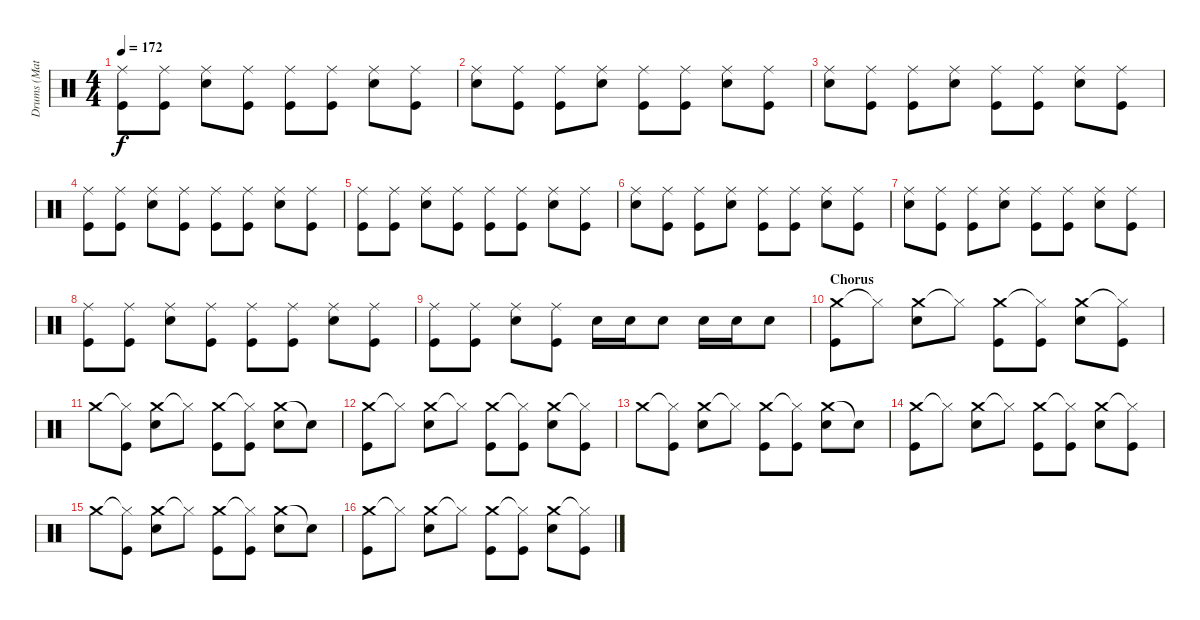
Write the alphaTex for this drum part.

\track ("Drums (Matt)" "Drums (Mat") {instrument percussion}
\staff {score}
\articulation defaults
\ts (4 4)
\tempo 172
\clef neutral
\ks c
("Ride (middle)" "Kick (hit)").8{dy f} ("Ride (middle)" "Kick (hit)").8 ("Ride (middle)" "Electric Snare (hit)").8 ("Ride (middle)" "Kick (hit)").8 ("Ride (middle)" "Kick (hit)").8 ("Ride (middle)" "Kick (hit)").8 ("Ride (middle)" "Electric Snare (hit)").8 ("Ride (middle)" "Kick (hit)").8 |
("Ride (middle)" "Electric Snare (hit)").8 ("Ride (middle)" "Kick (hit)").8 ("Ride (middle)" "Kick (hit)").8 ("Ride (middle)" "Electric Snare (hit)").8 ("Ride (middle)" "Kick (hit)").8 ("Ride (middle)" "Kick (hit)").8 ("Ride (middle)" "Electric Snare (hit)").8 ("Ride (middle)" "Kick (hit)").8 |
("Ride (middle)" "Electric Snare (hit)").8 ("Ride (middle)" "Kick (hit)").8 ("Ride (middle)" "Kick (hit)").8 ("Ride (middle)" "Electric Snare (hit)").8 ("Ride (middle)" "Kick (hit)").8 ("Ride (middle)" "Kick (hit)").8 ("Ride (middle)" "Electric Snare (hit)").8 ("Ride (middle)" "Kick (hit)").8 |
("Ride (middle)" "Kick (hit)").8 ("Ride (middle)" "Kick (hit)").8 ("Ride (middle)" "Electric Snare (hit)").8 ("Ride (middle)" "Kick (hit)").8 ("Ride (middle)" "Kick (hit)").8 ("Ride (middle)" "Kick (hit)").8 ("Ride (middle)" "Electric Snare (hit)").8 ("Ride (middle)" "Kick (hit)").8 |
("Ride (middle)" "Kick (hit)").8 ("Ride (middle)" "Kick (hit)").8 ("Ride (middle)" "Electric Snare (hit)").8 ("Ride (middle)" "Kick (hit)").8 ("Ride (middle)" "Kick (hit)").8 ("Ride (middle)" "Kick (hit)").8 ("Ride (middle)" "Electric Snare (hit)").8 ("Ride (middle)" "Kick (hit)").8 |
("Ride (middle)" "Electric Snare (hit)").8 ("Ride (middle)" "Kick (hit)").8 ("Ride (middle)" "Kick (hit)").8 ("Ride (middle)" "Electric Snare (hit)").8 ("Ride (middle)" "Kick (hit)").8 ("Ride (middle)" "Kick (hit)").8 ("Ride (middle)" "Electric Snare (hit)").8 ("Ride (middle)" "Kick (hit)").8 |
("Ride (middle)" "Electric Snare (hit)").8 ("Ride (middle)" "Kick (hit)").8 ("Ride (middle)" "Kick (hit)").8 ("Ride (middle)" "Electric Snare (hit)").8 ("Ride (middle)" "Kick (hit)").8 ("Ride (middle)" "Kick (hit)").8 ("Ride (middle)" "Electric Snare (hit)").8 ("Ride (middle)" "Kick (hit)").8 |
("Ride (middle)" "Kick (hit)").8 ("Ride (middle)" "Kick (hit)").8 ("Ride (middle)" "Electric Snare (hit)").8 ("Ride (middle)" "Kick (hit)").8 ("Ride (middle)" "Kick (hit)").8 ("Ride (middle)" "Kick (hit)").8 ("Ride (middle)" "Electric Snare (hit)").8 ("Ride (middle)" "Kick (hit)").8 |
("Ride (middle)" "Kick (hit)").8 ("Ride (middle)" "Kick (hit)").8 ("Ride (middle)" "Electric Snare (hit)").8 ("Ride (middle)" "Kick (hit)").8 "Electric Snare (hit)".16 "Electric Snare (hit)".16 "Electric Snare (hit)".8 "Electric Snare (hit)".16 "Electric Snare (hit)".16 "Electric Snare (hit)".8 |
\section ("" "Chorus")
("Crash medium (hit)" "Kick (hit)").8 "Hi-Hat (closed)"{t}.8 ("Crash medium (hit)" "Electric Snare (hit)").8 "Hi-Hat (closed)"{t}.8 ("Crash medium (hit)" "Kick (hit)").8 ("Hi-Hat (closed)"{t} "Kick (hit)").8 ("Crash medium (hit)" "Electric Snare (hit)").8 ("Hi-Hat (closed)"{t} "Kick (hit)").8 |
"Crash medium (hit)".8 ("Hi-Hat (closed)"{t} "Kick (hit)").8 ("Crash medium (hit)" "Electric Snare (hit)").8 "Hi-Hat (closed)"{t}.8 ("Crash medium (hit)" "Kick (hit)").8 ("Hi-Hat (closed)"{t} "Kick (hit)").8 ("Crash medium (hit)" "Electric Snare (hit)").8 "Snare (hit)"{t}.8 |
("Crash medium (hit)" "Kick (hit)").8 "Hi-Hat (closed)"{t}.8 ("Crash medium (hit)" "Electric Snare (hit)").8 "Hi-Hat (closed)"{t}.8 ("Crash medium (hit)" "Kick (hit)").8 ("Hi-Hat (closed)"{t} "Kick (hit)").8 ("Crash medium (hit)" "Electric Snare (hit)").8 ("Hi-Hat (closed)"{t} "Kick (hit)").8 |
"Crash medium (hit)".8 ("Hi-Hat (closed)"{t} "Kick (hit)").8 ("Crash medium (hit)" "Electric Snare (hit)").8 "Hi-Hat (closed)"{t}.8 ("Crash medium (hit)" "Kick (hit)").8 ("Hi-Hat (closed)"{t} "Kick (hit)").8 ("Crash medium (hit)" "Electric Snare (hit)").8 "Snare (hit)"{t}.8 |
("Crash medium (hit)" "Kick (hit)").8 "Hi-Hat (closed)"{t}.8 ("Crash medium (hit)" "Electric Snare (hit)").8 "Hi-Hat (closed)"{t}.8 ("Crash medium (hit)" "Kick (hit)").8 ("Hi-Hat (closed)"{t} "Kick (hit)").8 ("Crash medium (hit)" "Electric Snare (hit)").8 ("Hi-Hat (closed)"{t} "Kick (hit)").8 |
"Crash medium (hit)".8 ("Hi-Hat (closed)"{t} "Kick (hit)").8 ("Crash medium (hit)" "Electric Snare (hit)").8 "Hi-Hat (closed)"{t}.8 ("Crash medium (hit)" "Kick (hit)").8 ("Hi-Hat (closed)"{t} "Kick (hit)").8 ("Crash medium (hit)" "Electric Snare (hit)").8 "Snare (hit)"{t}.8 |
("Crash medium (hit)" "Kick (hit)").8 "Hi-Hat (closed)"{t}.8 ("Crash medium (hit)" "Electric Snare (hit)").8 "Hi-Hat (closed)"{t}.8 ("Crash medium (hit)" "Kick (hit)").8 ("Hi-Hat (closed)"{t} "Kick (hit)").8 ("Crash medium (hit)" "Electric Snare (hit)").8 ("Hi-Hat (closed)"{t} "Kick (hit)").8
